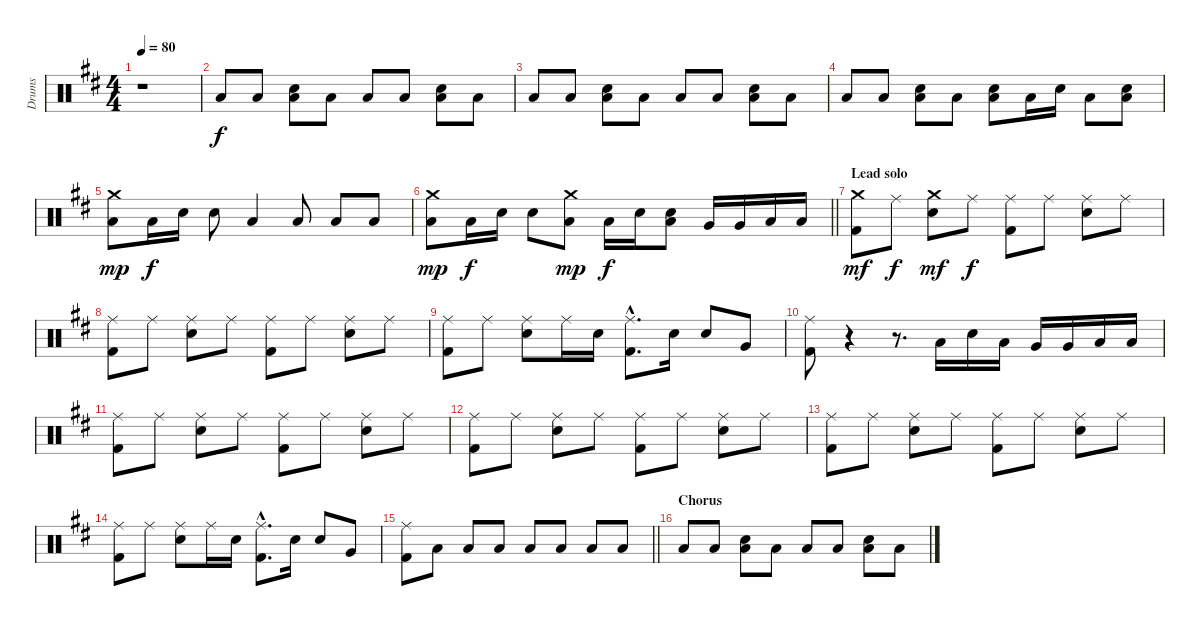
\track ("Drums" "Drums") {instrument percussion}
\staff {score}
\articulation defaults
\ts (4 4)
\tempo 80
\clef neutral
\ks d
r.1{dy f} |
"Low Tom (hit)".8 "Low Floor Tom (hit)".8 ("Low Tom (hit)" "Snare (hit) 2").8 "Low Floor Tom (hit)".8 "Low Tom (hit)".8 "Low Floor Tom (hit)".8 ("Low Tom (hit)" "Snare (hit) 2").8 "Low Floor Tom (hit)".8 |
"Low Tom (hit)".8 "Low Floor Tom (hit)".8 ("Low Tom (hit)" "Snare (hit) 2").8 "Low Floor Tom (hit)".8 "Low Tom (hit)".8 "Low Floor Tom (hit)".8 ("Low Tom (hit)" "Snare (hit) 2").8 "Low Floor Tom (hit)".8 |
"Low Tom (hit)".8 "Low Floor Tom (hit)".8 ("Low Tom (hit)" "Snare (hit) 2").8 "Low Floor Tom (hit)".8 ("Low Tom (hit)" "Snare (hit) 2").8 "Low Floor Tom (hit)".16 "Snare (hit) 2".16 "Low Tom (hit)".8 ("Low Floor Tom (hit)" "Snare (hit) 2").8 |
("Crash medium (hit)" "Low Tom (hit)").8{dy mp} "Low Floor Tom (hit)".16{dy f} "Snare (hit) 2".16 "Snare (hit) 2".8 "Low Tom (hit)".4 "Low Floor Tom (hit)".8 "Low Tom (hit)".8 "Low Floor Tom (hit)".8 |
\barLineRight lightlight
("Crash medium (hit)" "Low Tom (hit)").8{dy mp} "Low Floor Tom (hit)".16{dy f} "Snare (hit) 2".16 "Snare (hit) 2".8 ("Crash medium (hit)" "Low Tom (hit)").8{dy mp} "Low Floor Tom (hit)".16{dy f} "Snare (hit) 2".16 ("Low Floor Tom (hit)" "Snare (hit) 2").8 "Very Low Tom (hit)".16 "Very Low Tom (hit)".16 "Low Floor Tom (hit)".16 "Low Floor Tom (hit)".16 |
\section ("" "Lead solo")
("Crash medium (hit)" "Kick (hit) 2").8{dy mf} "Ride (middle)".8{dy f} ("Crash medium (hit)" "Snare (hit) 2").8{dy mf} "Ride (middle)".8{dy f} ("Ride (middle)" "Kick (hit) 2").8 "Ride (middle)".8 ("Ride (middle)" "Snare (hit) 2").8 "Ride (middle)".8 |
("Ride (middle)" "Kick (hit) 2").8 "Ride (middle)".8 ("Ride (middle)" "Snare (hit) 2").8 "Ride (middle)".8 ("Ride (middle)" "Kick (hit) 2").8 "Ride (middle)".8 ("Ride (middle)" "Snare (hit) 2").8 "Ride (middle)".8 |
("Ride (middle)" "Kick (hit) 2").8 "Ride (middle)".8 ("Ride (middle)" "Snare (hit) 2").8 "Ride (middle)".16 "Snare (hit) 2".16 ("Ride (middle)"{hac} "Kick (hit) 2"{hac}).8{d} "Snare (hit) 2".16 "Snare (hit) 2".8 "Very Low Tom (hit)".8 |
("Ride (middle)" "Kick (hit) 2").8 r.4 r.8{d} "Low Tom (hit)".16 "Snare (hit) 2".16 "Low Tom (hit)".16 "Very Low Tom (hit)".16 "Very Low Tom (hit)".16 "Low Floor Tom (hit)".16 "Low Floor Tom (hit)".16 |
("Ride (middle)" "Kick (hit) 2").8 "Ride (middle)".8 ("Ride (middle)" "Snare (hit) 2").8 "Ride (middle)".8 ("Ride (middle)" "Kick (hit) 2").8 "Ride (middle)".8 ("Ride (middle)" "Snare (hit) 2").8 "Ride (middle)".8 |
("Ride (middle)" "Kick (hit) 2").8 "Ride (middle)".8 ("Ride (middle)" "Snare (hit) 2").8 "Ride (middle)".8 ("Ride (middle)" "Kick (hit) 2").8 "Ride (middle)".8 ("Ride (middle)" "Snare (hit) 2").8 "Ride (middle)".8 |
("Ride (middle)" "Kick (hit) 2").8 "Ride (middle)".8 ("Ride (middle)" "Snare (hit) 2").8 "Ride (middle)".8 ("Ride (middle)" "Kick (hit) 2").8 "Ride (middle)".8 ("Ride (middle)" "Snare (hit) 2").8 "Ride (middle)".8 |
("Ride (middle)" "Kick (hit) 2").8 "Ride (middle)".8 ("Ride (middle)" "Snare (hit) 2").8 "Ride (middle)".16 "Snare (hit) 2".16 ("Ride (middle)"{hac} "Kick (hit) 2"{hac}).8{d} "Snare (hit) 2".16 "Snare (hit) 2".8 "Very Low Tom (hit)".8 |
\barLineRight lightlight
("Ride (middle)" "Kick (hit) 2").8 "Low Floor Tom (hit)".8 "Low Tom (hit)".8 "Low Floor Tom (hit)".8 "Low Floor Tom (hit)".8 "Low Floor Tom (hit)".8 "Low Tom (hit)".8 "Low Floor Tom (hit)".8 |
\section ("" "Chorus")
"Low Floor Tom (hit)".8 "Low Floor Tom (hit)".8 ("Low Tom (hit)" "Snare (hit) 2").8 "Low Floor Tom (hit)".8 "Low Floor Tom (hit)".8 "Low Floor Tom (hit)".8 ("Low Tom (hit)" "Snare (hit) 2").8 "Low Floor Tom (hit)".8
